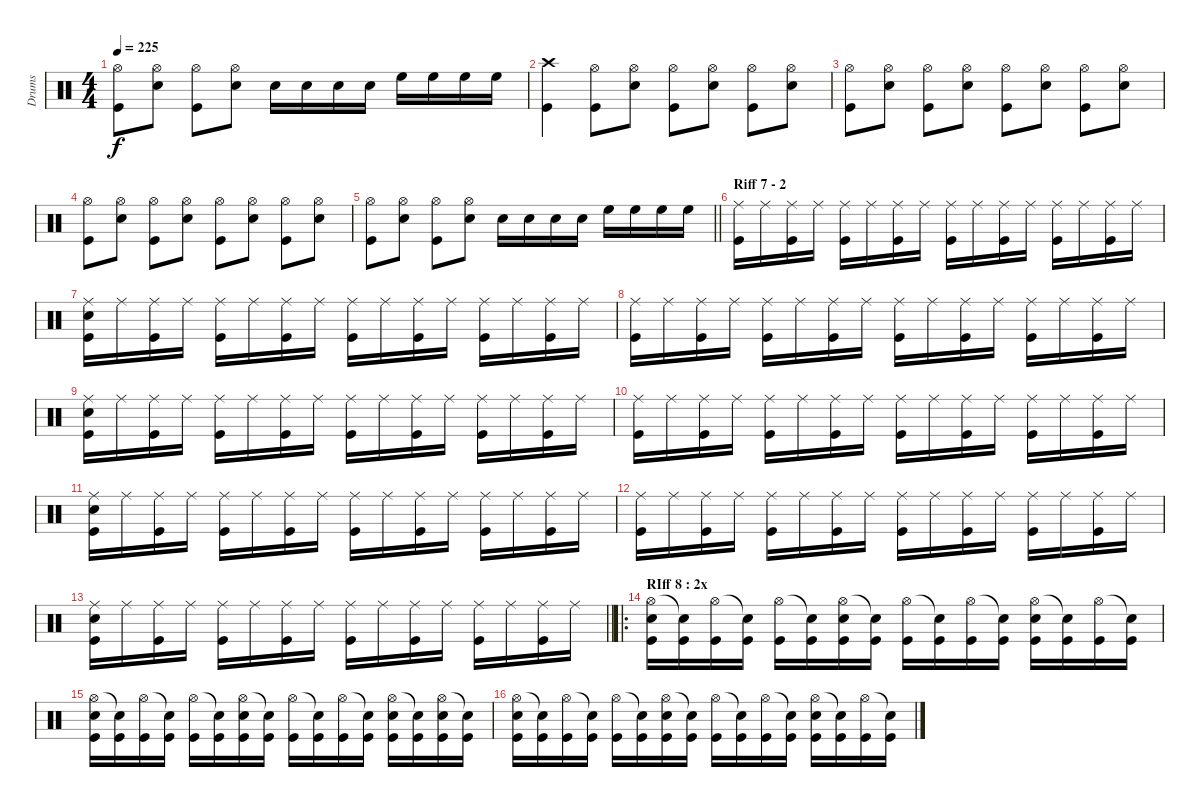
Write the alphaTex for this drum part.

\track ("Drums" "Drums") {instrument percussion}
\staff {score}
\articulation defaults
\ts (4 4)
\tempo 225
\clef neutral
\ks c
("Hi-Hat (open)" "Kick (hit)").8{dy f} ("Hi-Hat (open)" "Electric Snare (hit)").8 ("Hi-Hat (open)" "Kick (hit)").8 ("Hi-Hat (open)" "Electric Snare (hit)").8 "Electric Snare (hit)".16 "Electric Snare (hit)".16 "Electric Snare (hit)".16 "Electric Snare (hit)".16 "High Floor Tom (hit)".16 "High Floor Tom (hit)".16 "High Floor Tom (hit)".16 "High Floor Tom (hit)".16 |
("Crash high (hit)" "Kick (hit)").4 ("Hi-Hat (open)" "Kick (hit)").8 ("Hi-Hat (open)" "Electric Snare (hit)").8 ("Hi-Hat (open)" "Kick (hit)").8 ("Hi-Hat (open)" "Electric Snare (hit)").8 ("Hi-Hat (open)" "Kick (hit)").8 ("Hi-Hat (open)" "Electric Snare (hit)").8 |
("Hi-Hat (open)" "Kick (hit)").8 ("Hi-Hat (open)" "Electric Snare (hit)").8 ("Hi-Hat (open)" "Kick (hit)").8 ("Hi-Hat (open)" "Electric Snare (hit)").8 ("Hi-Hat (open)" "Kick (hit)").8 ("Hi-Hat (open)" "Electric Snare (hit)").8 ("Hi-Hat (open)" "Kick (hit)").8 ("Hi-Hat (open)" "Electric Snare (hit)").8 |
("Hi-Hat (open)" "Kick (hit)").8 ("Hi-Hat (open)" "Electric Snare (hit)").8 ("Hi-Hat (open)" "Kick (hit)").8 ("Hi-Hat (open)" "Electric Snare (hit)").8 ("Hi-Hat (open)" "Kick (hit)").8 ("Hi-Hat (open)" "Electric Snare (hit)").8 ("Hi-Hat (open)" "Kick (hit)").8 ("Hi-Hat (open)" "Electric Snare (hit)").8 |
\barLineRight lightlight
("Hi-Hat (open)" "Kick (hit)").8 ("Hi-Hat (open)" "Electric Snare (hit)").8 ("Hi-Hat (open)" "Kick (hit)").8 ("Hi-Hat (open)" "Electric Snare (hit)").8 "Electric Snare (hit)".16 "Electric Snare (hit)".16 "Electric Snare (hit)".16 "Electric Snare (hit)".16 "High Floor Tom (hit)".16 "High Floor Tom (hit)".16 "High Floor Tom (hit)".16 "High Floor Tom (hit)".16 |
\section ("" "Riff 7 - 2 ")
("Ride (middle)" "Kick (hit)").16 "Ride (middle)".16 ("Ride (middle)" "Kick (hit)").16 "Ride (middle)".16 ("Ride (middle)" "Kick (hit)").16 "Ride (middle)".16 ("Ride (middle)" "Kick (hit)").16 "Ride (middle)".16 ("Ride (middle)" "Kick (hit)").16 "Ride (middle)".16 ("Ride (middle)" "Kick (hit)").16 "Ride (middle)".16 ("Ride (middle)" "Kick (hit)").16 "Ride (middle)".16 ("Ride (middle)" "Kick (hit)").16 "Ride (middle)".16 |
("Ride (middle)" "Electric Snare (hit)" "Kick (hit)").16 "Ride (middle)".16 ("Ride (middle)" "Kick (hit)").16 "Ride (middle)".16 ("Ride (middle)" "Kick (hit)").16 "Ride (middle)".16 ("Ride (middle)" "Kick (hit)").16 "Ride (middle)".16 ("Ride (middle)" "Kick (hit)").16 "Ride (middle)".16 ("Ride (middle)" "Kick (hit)").16 "Ride (middle)".16 ("Ride (middle)" "Kick (hit)").16 "Ride (middle)".16 ("Ride (middle)" "Kick (hit)").16 "Ride (middle)".16 |
("Ride (middle)" "Kick (hit)").16 "Ride (middle)".16 ("Ride (middle)" "Kick (hit)").16 "Ride (middle)".16 ("Ride (middle)" "Kick (hit)").16 "Ride (middle)".16 ("Ride (middle)" "Kick (hit)").16 "Ride (middle)".16 ("Ride (middle)" "Kick (hit)").16 "Ride (middle)".16 ("Ride (middle)" "Kick (hit)").16 "Ride (middle)".16 ("Ride (middle)" "Kick (hit)").16 "Ride (middle)".16 ("Ride (middle)" "Kick (hit)").16 "Ride (middle)".16 |
("Ride (middle)" "Electric Snare (hit)" "Kick (hit)").16 "Ride (middle)".16 ("Ride (middle)" "Kick (hit)").16 "Ride (middle)".16 ("Ride (middle)" "Kick (hit)").16 "Ride (middle)".16 ("Ride (middle)" "Kick (hit)").16 "Ride (middle)".16 ("Ride (middle)" "Kick (hit)").16 "Ride (middle)".16 ("Ride (middle)" "Kick (hit)").16 "Ride (middle)".16 ("Ride (middle)" "Kick (hit)").16 "Ride (middle)".16 ("Ride (middle)" "Kick (hit)").16 "Ride (middle)".16 |
("Ride (middle)" "Kick (hit)").16 "Ride (middle)".16 ("Ride (middle)" "Kick (hit)").16 "Ride (middle)".16 ("Ride (middle)" "Kick (hit)").16 "Ride (middle)".16 ("Ride (middle)" "Kick (hit)").16 "Ride (middle)".16 ("Ride (middle)" "Kick (hit)").16 "Ride (middle)".16 ("Ride (middle)" "Kick (hit)").16 "Ride (middle)".16 ("Ride (middle)" "Kick (hit)").16 "Ride (middle)".16 ("Ride (middle)" "Kick (hit)").16 "Ride (middle)".16 |
("Ride (middle)" "Electric Snare (hit)" "Kick (hit)").16 "Ride (middle)".16 ("Ride (middle)" "Kick (hit)").16 "Ride (middle)".16 ("Ride (middle)" "Kick (hit)").16 "Ride (middle)".16 ("Ride (middle)" "Kick (hit)").16 "Ride (middle)".16 ("Ride (middle)" "Kick (hit)").16 "Ride (middle)".16 ("Ride (middle)" "Kick (hit)").16 "Ride (middle)".16 ("Ride (middle)" "Kick (hit)").16 "Ride (middle)".16 ("Ride (middle)" "Kick (hit)").16 "Ride (middle)".16 |
("Ride (middle)" "Kick (hit)").16 "Ride (middle)".16 ("Ride (middle)" "Kick (hit)").16 "Ride (middle)".16 ("Ride (middle)" "Kick (hit)").16 "Ride (middle)".16 ("Ride (middle)" "Kick (hit)").16 "Ride (middle)".16 ("Ride (middle)" "Kick (hit)").16 "Ride (middle)".16 ("Ride (middle)" "Kick (hit)").16 "Ride (middle)".16 ("Ride (middle)" "Kick (hit)").16 "Ride (middle)".16 ("Ride (middle)" "Kick (hit)").16 "Ride (middle)".16 |
\barLineRight lightlight
("Ride (middle)" "Electric Snare (hit)" "Kick (hit)").16 "Ride (middle)".16 ("Ride (middle)" "Kick (hit)").16 "Ride (middle)".16 ("Ride (middle)" "Kick (hit)").16 "Ride (middle)".16 ("Ride (middle)" "Kick (hit)").16 "Ride (middle)".16 ("Ride (middle)" "Kick (hit)").16 "Ride (middle)".16 ("Ride (middle)" "Kick (hit)").16 "Ride (middle)".16 ("Ride (middle)" "Kick (hit)").16 "Ride (middle)".16 ("Ride (middle)" "Kick (hit)").16 "Ride (middle)".16 |
\ro
\section ("" "RIff 8 : 2x")
("Hi-Hat (open)" "Electric Snare (hit)" "Kick (hit)").16 ("Snare (hit)"{t} "Kick (hit)").16 ("Hi-Hat (open)" "Kick (hit)").16 ("Snare (hit)"{t} "Kick (hit)").16 ("Hi-Hat (open)" "Kick (hit)").16 ("Snare (hit)"{t} "Kick (hit)").16 ("Hi-Hat (open)" "Electric Snare (hit)" "Kick (hit)").16 ("Snare (hit)"{t} "Kick (hit)").16 ("Hi-Hat (open)" "Kick (hit)").16 ("Snare (hit)"{t} "Kick (hit)").16 ("Hi-Hat (open)" "Kick (hit)").16 ("Snare (hit)"{t} "Kick (hit)").16 ("Hi-Hat (open)" "Electric Snare (hit)" "Kick (hit)").16 ("Snare (hit)"{t} "Kick (hit)").16 ("Hi-Hat (open)" "Kick (hit)").16 ("Snare (hit)"{t} "Kick (hit)").16 |
("Hi-Hat (open)" "Electric Snare (hit)" "Kick (hit)").16 ("Snare (hit)"{t} "Kick (hit)").16 ("Hi-Hat (open)" "Kick (hit)").16 ("Snare (hit)"{t} "Kick (hit)").16 ("Hi-Hat (open)" "Kick (hit)").16 ("Snare (hit)"{t} "Kick (hit)").16 ("Hi-Hat (open)" "Electric Snare (hit)" "Kick (hit)").16 ("Snare (hit)"{t} "Kick (hit)").16 ("Hi-Hat (open)" "Kick (hit)").16 ("Snare (hit)"{t} "Kick (hit)").16 ("Hi-Hat (open)" "Kick (hit)").16 ("Snare (hit)"{t} "Kick (hit)").16 ("Hi-Hat (open)" "Electric Snare (hit)" "Kick (hit)").16 ("Snare (hit)"{t} "Kick (hit)").16 ("Hi-Hat (open)" "Electric Snare (hit)" "Kick (hit)").16 ("Snare (hit)"{t} "Kick (hit)").16 |
("Hi-Hat (open)" "Electric Snare (hit)" "Kick (hit)").16 ("Snare (hit)"{t} "Kick (hit)").16 ("Hi-Hat (open)" "Kick (hit)").16 ("Snare (hit)"{t} "Kick (hit)").16 ("Hi-Hat (open)" "Kick (hit)").16 ("Snare (hit)"{t} "Kick (hit)").16 ("Hi-Hat (open)" "Electric Snare (hit)" "Kick (hit)").16 ("Snare (hit)"{t} "Kick (hit)").16 ("Hi-Hat (open)" "Kick (hit)").16 ("Snare (hit)"{t} "Kick (hit)").16 ("Hi-Hat (open)" "Kick (hit)").16 ("Snare (hit)"{t} "Kick (hit)").16 ("Hi-Hat (open)" "Electric Snare (hit)" "Kick (hit)").16 ("Snare (hit)"{t} "Kick (hit)").16 ("Hi-Hat (open)" "Kick (hit)").16 ("Snare (hit)"{t} "Kick (hit)").16
